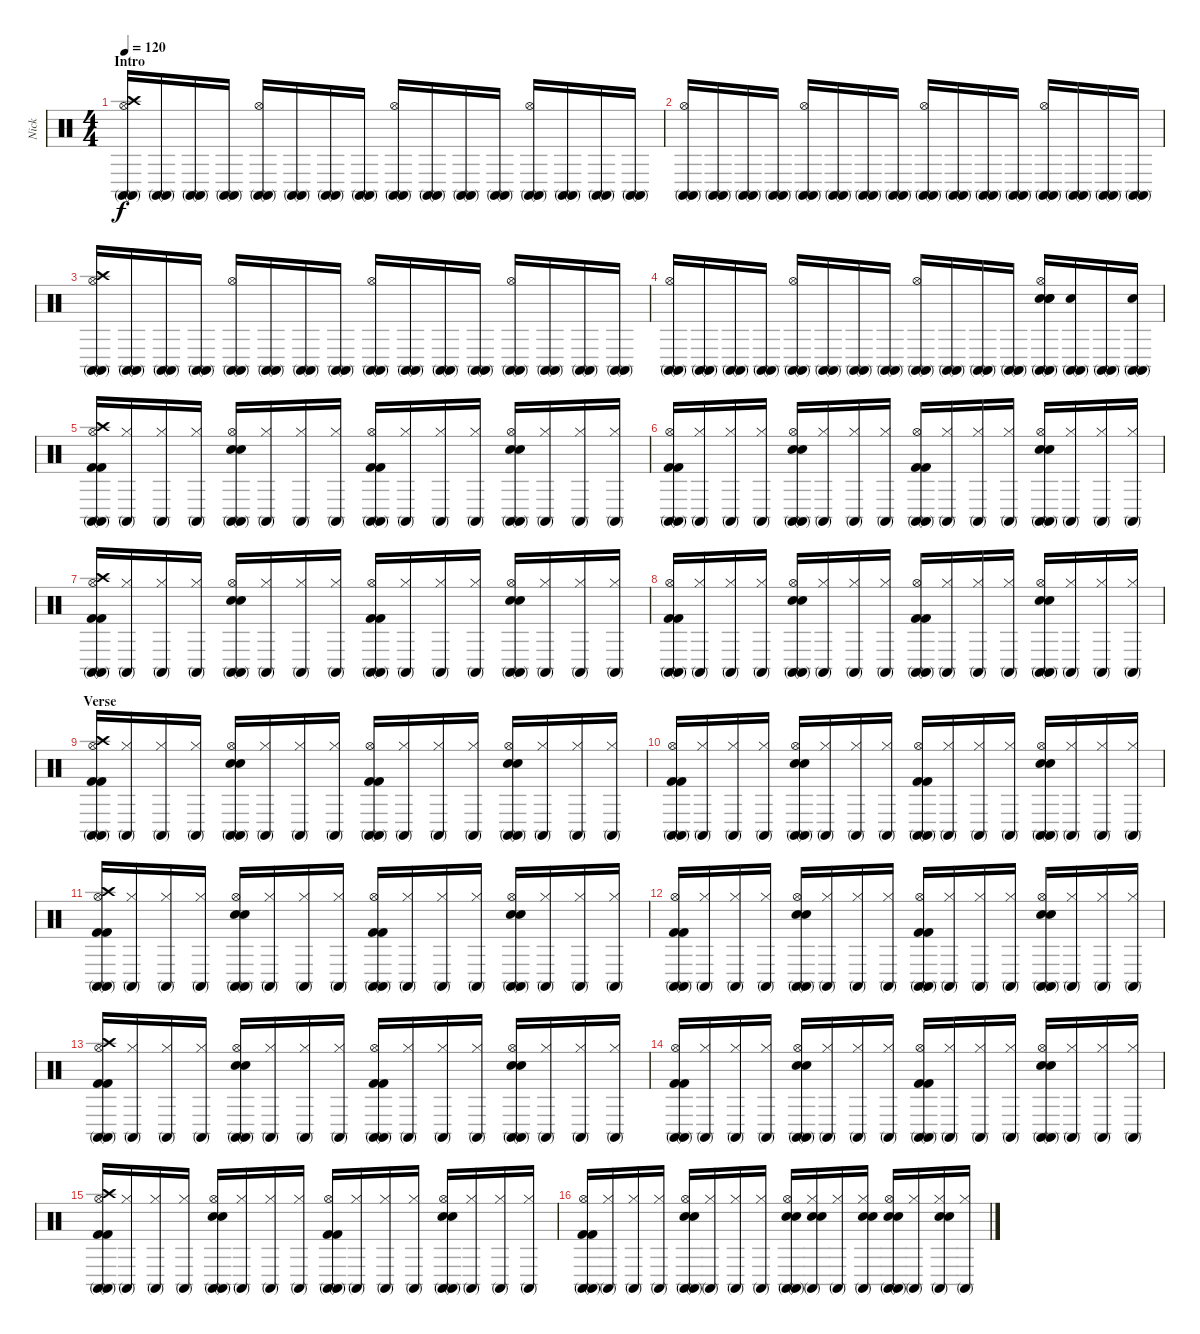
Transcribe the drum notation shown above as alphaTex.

\track ("Nick" "Nick") {instrument percussion}
\staff {score}
\articulation defaults
\ts (4 4)
\section ("" "Intro")
\tempo 120
\clef neutral
\ks c
("Conga high (mute)" "Hi-Hat (open)" "Crash high (hit)" "Conga high (mute)").16{dy f} ("Conga high (mute)" "Conga high (mute)").16 ("Conga high (mute)" "Conga high (mute)").16 ("Conga high (mute)" "Conga high (mute)").16 ("Conga high (mute)" "Hi-Hat (open)" "Conga high (mute)").16 ("Conga high (mute)" "Conga high (mute)").16 ("Conga high (mute)" "Conga high (mute)").16 ("Conga high (mute)" "Conga high (mute)").16 ("Conga high (mute)" "Hi-Hat (open)" "Conga high (mute)").16 ("Conga high (mute)" "Conga high (mute)").16 ("Conga high (mute)" "Conga high (mute)").16 ("Conga high (mute)" "Conga high (mute)").16 ("Conga high (mute)" "Hi-Hat (open)" "Conga high (mute)").16 ("Conga high (mute)" "Conga high (mute)").16 ("Conga high (mute)" "Conga high (mute)").16 ("Conga high (mute)" "Conga high (mute)").16 |
("Conga high (mute)" "Hi-Hat (open)" "Conga high (mute)").16 ("Conga high (mute)" "Conga high (mute)").16 ("Conga high (mute)" "Conga high (mute)").16 ("Conga high (mute)" "Conga high (mute)").16 ("Conga high (mute)" "Hi-Hat (open)" "Conga high (mute)").16 ("Conga high (mute)" "Conga high (mute)").16 ("Conga high (mute)" "Conga high (mute)").16 ("Conga high (mute)" "Conga high (mute)").16 ("Conga high (mute)" "Hi-Hat (open)" "Conga high (mute)").16 ("Conga high (mute)" "Conga high (mute)").16 ("Conga high (mute)" "Conga high (mute)").16 ("Conga high (mute)" "Conga high (mute)").16 ("Conga high (mute)" "Hi-Hat (open)" "Conga high (mute)").16 ("Conga high (mute)" "Conga high (mute)").16 ("Conga high (mute)" "Conga high (mute)").16 ("Conga high (mute)" "Conga high (mute)").16 |
("Conga high (mute)" "Hi-Hat (open)" "Crash high (hit)" "Conga high (mute)").16 ("Conga high (mute)" "Conga high (mute)").16 ("Conga high (mute)" "Conga high (mute)").16 ("Conga high (mute)" "Conga high (mute)").16 ("Conga high (mute)" "Hi-Hat (open)" "Conga high (mute)").16 ("Conga high (mute)" "Conga high (mute)").16 ("Conga high (mute)" "Conga high (mute)").16 ("Conga high (mute)" "Conga high (mute)").16 ("Conga high (mute)" "Hi-Hat (open)" "Conga high (mute)").16 ("Conga high (mute)" "Conga high (mute)").16 ("Conga high (mute)" "Conga high (mute)").16 ("Conga high (mute)" "Conga high (mute)").16 ("Conga high (mute)" "Hi-Hat (open)" "Conga high (mute)").16 ("Conga high (mute)" "Conga high (mute)").16 ("Conga high (mute)" "Conga high (mute)").16 ("Conga high (mute)" "Conga high (mute)").16 |
("Conga high (mute)" "Hi-Hat (open)" "Conga high (mute)").16 ("Conga high (mute)" "Conga high (mute)").16 ("Conga high (mute)" "Conga high (mute)").16 ("Conga high (mute)" "Conga high (mute)").16 ("Conga high (mute)" "Hi-Hat (open)" "Conga high (mute)").16 ("Conga high (mute)" "Conga high (mute)").16 ("Conga high (mute)" "Conga high (mute)").16 ("Conga high (mute)" "Conga high (mute)").16 ("Conga high (mute)" "Hi-Hat (open)" "Conga high (mute)").16 ("Conga high (mute)" "Conga high (mute)").16 ("Conga high (mute)" "Conga high (mute)").16 ("Conga high (mute)" "Conga high (mute)").16 ("Conga high (mute)" "Hi-Hat (open)" "Snare (hit) 2" "Snare (hit) 2" "Snare (hit) 2" "Conga high (mute)").16 ("Conga high (mute)" "Snare (hit) 2" "Conga high (mute)").16 ("Conga high (mute)" "Conga high (mute)").16 ("Conga high (mute)" "Snare (hit) 2" "Conga high (mute)").16 |
("Conga high (mute)" "Hi-Hat (open)" "Crash high (hit)" "Kick (hit) 2" "Kick (hit) 2" "Conga high (mute)").16 ("Hi-Hat (closed)" "Conga high (mute)").16 ("Hi-Hat (closed)" "Conga high (mute)").16 ("Hi-Hat (closed)" "Conga high (mute)").16 ("Conga high (mute)" "Hi-Hat (open)" "Snare (hit) 2" "Snare (hit) 2" "Conga high (mute)").16 ("Hi-Hat (closed)" "Conga high (mute)").16 ("Hi-Hat (closed)" "Conga high (mute)").16 ("Hi-Hat (closed)" "Conga high (mute)").16 ("Conga high (mute)" "Hi-Hat (open)" "Kick (hit) 2" "Kick (hit) 2" "Conga high (mute)").16 ("Hi-Hat (closed)" "Conga high (mute)").16 ("Hi-Hat (closed)" "Conga high (mute)").16 ("Hi-Hat (closed)" "Conga high (mute)").16 ("Conga high (mute)" "Hi-Hat (open)" "Snare (hit) 2" "Snare (hit) 2" "Conga high (mute)").16 ("Hi-Hat (closed)" "Conga high (mute)").16 ("Hi-Hat (closed)" "Conga high (mute)").16 ("Hi-Hat (closed)" "Conga high (mute)").16 |
("Conga high (mute)" "Hi-Hat (open)" "Kick (hit) 2" "Kick (hit) 2" "Conga high (mute)").16 ("Hi-Hat (closed)" "Conga high (mute)").16 ("Hi-Hat (closed)" "Conga high (mute)").16 ("Hi-Hat (closed)" "Conga high (mute)").16 ("Conga high (mute)" "Hi-Hat (open)" "Snare (hit) 2" "Snare (hit) 2" "Conga high (mute)").16 ("Hi-Hat (closed)" "Conga high (mute)").16 ("Hi-Hat (closed)" "Conga high (mute)").16 ("Hi-Hat (closed)" "Conga high (mute)").16 ("Conga high (mute)" "Hi-Hat (open)" "Kick (hit) 2" "Kick (hit) 2" "Conga high (mute)").16 ("Hi-Hat (closed)" "Conga high (mute)").16 ("Hi-Hat (closed)" "Conga high (mute)").16 ("Hi-Hat (closed)" "Conga high (mute)").16 ("Conga high (mute)" "Hi-Hat (open)" "Snare (hit) 2" "Snare (hit) 2" "Conga high (mute)").16 ("Hi-Hat (closed)" "Conga high (mute)").16 ("Hi-Hat (closed)" "Conga high (mute)").16 ("Hi-Hat (closed)" "Conga high (mute)").16 |
("Conga high (mute)" "Hi-Hat (open)" "Crash high (hit)" "Kick (hit) 2" "Kick (hit) 2" "Conga high (mute)").16 ("Hi-Hat (closed)" "Conga high (mute)").16 ("Hi-Hat (closed)" "Conga high (mute)").16 ("Hi-Hat (closed)" "Conga high (mute)").16 ("Conga high (mute)" "Hi-Hat (open)" "Snare (hit) 2" "Snare (hit) 2" "Conga high (mute)").16 ("Hi-Hat (closed)" "Conga high (mute)").16 ("Hi-Hat (closed)" "Conga high (mute)").16 ("Hi-Hat (closed)" "Conga high (mute)").16 ("Conga high (mute)" "Hi-Hat (open)" "Kick (hit) 2" "Kick (hit) 2" "Conga high (mute)").16 ("Hi-Hat (closed)" "Conga high (mute)").16 ("Hi-Hat (closed)" "Conga high (mute)").16 ("Hi-Hat (closed)" "Conga high (mute)").16 ("Conga high (mute)" "Hi-Hat (open)" "Snare (hit) 2" "Snare (hit) 2" "Conga high (mute)").16 ("Hi-Hat (closed)" "Conga high (mute)").16 ("Hi-Hat (closed)" "Conga high (mute)").16 ("Hi-Hat (closed)" "Conga high (mute)").16 |
("Conga high (mute)" "Hi-Hat (open)" "Kick (hit) 2" "Kick (hit) 2" "Conga high (mute)").16 ("Hi-Hat (closed)" "Conga high (mute)").16 ("Hi-Hat (closed)" "Conga high (mute)").16 ("Hi-Hat (closed)" "Conga high (mute)").16 ("Conga high (mute)" "Hi-Hat (open)" "Snare (hit) 2" "Snare (hit) 2" "Conga high (mute)").16 ("Hi-Hat (closed)" "Conga high (mute)").16 ("Hi-Hat (closed)" "Conga high (mute)").16 ("Hi-Hat (closed)" "Conga high (mute)").16 ("Conga high (mute)" "Hi-Hat (open)" "Kick (hit) 2" "Kick (hit) 2" "Conga high (mute)").16 ("Hi-Hat (closed)" "Conga high (mute)").16 ("Hi-Hat (closed)" "Conga high (mute)").16 ("Hi-Hat (closed)" "Conga high (mute)").16 ("Conga high (mute)" "Hi-Hat (open)" "Snare (hit) 2" "Snare (hit) 2" "Conga high (mute)").16 ("Hi-Hat (closed)" "Conga high (mute)").16 ("Hi-Hat (closed)" "Conga high (mute)").16 ("Hi-Hat (closed)" "Conga high (mute)").16 |
\section ("" "Verse")
("Conga high (mute)" "Hi-Hat (open)" "Crash high (hit)" "Kick (hit) 2" "Kick (hit) 2" "Conga high (mute)").16 ("Hi-Hat (closed)" "Conga high (mute)").16 ("Hi-Hat (closed)" "Conga high (mute)").16 ("Hi-Hat (closed)" "Conga high (mute)").16 ("Conga high (mute)" "Hi-Hat (open)" "Snare (hit) 2" "Snare (hit) 2" "Conga high (mute)").16 ("Hi-Hat (closed)" "Conga high (mute)").16 ("Hi-Hat (closed)" "Conga high (mute)").16 ("Hi-Hat (closed)" "Conga high (mute)").16 ("Conga high (mute)" "Hi-Hat (open)" "Kick (hit) 2" "Kick (hit) 2" "Conga high (mute)").16 ("Hi-Hat (closed)" "Conga high (mute)").16 ("Hi-Hat (closed)" "Conga high (mute)").16 ("Hi-Hat (closed)" "Conga high (mute)").16 ("Conga high (mute)" "Hi-Hat (open)" "Snare (hit) 2" "Snare (hit) 2" "Conga high (mute)").16 ("Hi-Hat (closed)" "Conga high (mute)").16 ("Hi-Hat (closed)" "Conga high (mute)").16 ("Hi-Hat (closed)" "Conga high (mute)").16 |
("Conga high (mute)" "Hi-Hat (open)" "Kick (hit) 2" "Kick (hit) 2" "Conga high (mute)").16 ("Hi-Hat (closed)" "Conga high (mute)").16 ("Hi-Hat (closed)" "Conga high (mute)").16 ("Hi-Hat (closed)" "Conga high (mute)").16 ("Conga high (mute)" "Hi-Hat (open)" "Snare (hit) 2" "Snare (hit) 2" "Conga high (mute)").16 ("Hi-Hat (closed)" "Conga high (mute)").16 ("Hi-Hat (closed)" "Conga high (mute)").16 ("Hi-Hat (closed)" "Conga high (mute)").16 ("Conga high (mute)" "Hi-Hat (open)" "Kick (hit) 2" "Kick (hit) 2" "Conga high (mute)").16 ("Hi-Hat (closed)" "Conga high (mute)").16 ("Hi-Hat (closed)" "Conga high (mute)").16 ("Hi-Hat (closed)" "Conga high (mute)").16 ("Conga high (mute)" "Hi-Hat (open)" "Snare (hit) 2" "Snare (hit) 2" "Conga high (mute)").16 ("Hi-Hat (closed)" "Conga high (mute)").16 ("Hi-Hat (closed)" "Conga high (mute)").16 ("Hi-Hat (closed)" "Conga high (mute)").16 |
("Conga high (mute)" "Hi-Hat (open)" "Crash high (hit)" "Kick (hit) 2" "Kick (hit) 2" "Conga high (mute)").16 ("Hi-Hat (closed)" "Conga high (mute)").16 ("Hi-Hat (closed)" "Conga high (mute)").16 ("Hi-Hat (closed)" "Conga high (mute)").16 ("Conga high (mute)" "Hi-Hat (open)" "Snare (hit) 2" "Snare (hit) 2" "Conga high (mute)").16 ("Hi-Hat (closed)" "Conga high (mute)").16 ("Hi-Hat (closed)" "Conga high (mute)").16 ("Hi-Hat (closed)" "Conga high (mute)").16 ("Conga high (mute)" "Hi-Hat (open)" "Kick (hit) 2" "Kick (hit) 2" "Conga high (mute)").16 ("Hi-Hat (closed)" "Conga high (mute)").16 ("Hi-Hat (closed)" "Conga high (mute)").16 ("Hi-Hat (closed)" "Conga high (mute)").16 ("Conga high (mute)" "Hi-Hat (open)" "Snare (hit) 2" "Snare (hit) 2" "Conga high (mute)").16 ("Hi-Hat (closed)" "Conga high (mute)").16 ("Hi-Hat (closed)" "Conga high (mute)").16 ("Hi-Hat (closed)" "Conga high (mute)").16 |
("Conga high (mute)" "Hi-Hat (open)" "Kick (hit) 2" "Kick (hit) 2" "Conga high (mute)").16 ("Hi-Hat (closed)" "Conga high (mute)").16 ("Hi-Hat (closed)" "Conga high (mute)").16 ("Hi-Hat (closed)" "Conga high (mute)").16 ("Conga high (mute)" "Hi-Hat (open)" "Snare (hit) 2" "Snare (hit) 2" "Conga high (mute)").16 ("Hi-Hat (closed)" "Conga high (mute)").16 ("Hi-Hat (closed)" "Conga high (mute)").16 ("Hi-Hat (closed)" "Conga high (mute)").16 ("Conga high (mute)" "Hi-Hat (open)" "Kick (hit) 2" "Kick (hit) 2" "Conga high (mute)").16 ("Hi-Hat (closed)" "Conga high (mute)").16 ("Hi-Hat (closed)" "Conga high (mute)").16 ("Hi-Hat (closed)" "Conga high (mute)").16 ("Conga high (mute)" "Hi-Hat (open)" "Snare (hit) 2" "Snare (hit) 2" "Conga high (mute)").16 ("Hi-Hat (closed)" "Conga high (mute)").16 ("Hi-Hat (closed)" "Conga high (mute)").16 ("Hi-Hat (closed)" "Conga high (mute)").16 |
("Conga high (mute)" "Hi-Hat (open)" "Crash high (hit)" "Kick (hit) 2" "Kick (hit) 2" "Conga high (mute)").16 ("Hi-Hat (closed)" "Conga high (mute)").16 ("Hi-Hat (closed)" "Conga high (mute)").16 ("Hi-Hat (closed)" "Conga high (mute)").16 ("Conga high (mute)" "Hi-Hat (open)" "Snare (hit) 2" "Snare (hit) 2" "Conga high (mute)").16 ("Hi-Hat (closed)" "Conga high (mute)").16 ("Hi-Hat (closed)" "Conga high (mute)").16 ("Hi-Hat (closed)" "Conga high (mute)").16 ("Conga high (mute)" "Hi-Hat (open)" "Kick (hit) 2" "Kick (hit) 2" "Conga high (mute)").16 ("Hi-Hat (closed)" "Conga high (mute)").16 ("Hi-Hat (closed)" "Conga high (mute)").16 ("Hi-Hat (closed)" "Conga high (mute)").16 ("Conga high (mute)" "Hi-Hat (open)" "Snare (hit) 2" "Snare (hit) 2" "Conga high (mute)").16 ("Hi-Hat (closed)" "Conga high (mute)").16 ("Hi-Hat (closed)" "Conga high (mute)").16 ("Hi-Hat (closed)" "Conga high (mute)").16 |
("Conga high (mute)" "Hi-Hat (open)" "Kick (hit) 2" "Kick (hit) 2" "Conga high (mute)").16 ("Hi-Hat (closed)" "Conga high (mute)").16 ("Hi-Hat (closed)" "Conga high (mute)").16 ("Hi-Hat (closed)" "Conga high (mute)").16 ("Conga high (mute)" "Hi-Hat (open)" "Snare (hit) 2" "Snare (hit) 2" "Conga high (mute)").16 ("Hi-Hat (closed)" "Conga high (mute)").16 ("Hi-Hat (closed)" "Conga high (mute)").16 ("Hi-Hat (closed)" "Conga high (mute)").16 ("Conga high (mute)" "Hi-Hat (open)" "Kick (hit) 2" "Kick (hit) 2" "Conga high (mute)").16 ("Hi-Hat (closed)" "Conga high (mute)").16 ("Hi-Hat (closed)" "Conga high (mute)").16 ("Hi-Hat (closed)" "Conga high (mute)").16 ("Conga high (mute)" "Hi-Hat (open)" "Snare (hit) 2" "Snare (hit) 2" "Conga high (mute)").16 ("Hi-Hat (closed)" "Conga high (mute)").16 ("Hi-Hat (closed)" "Conga high (mute)").16 ("Hi-Hat (closed)" "Conga high (mute)").16 |
("Conga high (mute)" "Hi-Hat (open)" "Crash high (hit)" "Kick (hit) 2" "Kick (hit) 2" "Conga high (mute)").16 ("Hi-Hat (closed)" "Conga high (mute)").16 ("Hi-Hat (closed)" "Conga high (mute)").16 ("Hi-Hat (closed)" "Conga high (mute)").16 ("Conga high (mute)" "Hi-Hat (open)" "Snare (hit) 2" "Snare (hit) 2" "Conga high (mute)").16 ("Hi-Hat (closed)" "Conga high (mute)").16 ("Hi-Hat (closed)" "Conga high (mute)").16 ("Hi-Hat (closed)" "Conga high (mute)").16 ("Conga high (mute)" "Hi-Hat (open)" "Kick (hit) 2" "Kick (hit) 2" "Conga high (mute)").16 ("Hi-Hat (closed)" "Conga high (mute)").16 ("Hi-Hat (closed)" "Conga high (mute)").16 ("Hi-Hat (closed)" "Conga high (mute)").16 ("Conga high (mute)" "Hi-Hat (open)" "Snare (hit) 2" "Snare (hit) 2" "Conga high (mute)").16 ("Hi-Hat (closed)" "Conga high (mute)").16 ("Hi-Hat (closed)" "Conga high (mute)").16 ("Hi-Hat (closed)" "Conga high (mute)").16 |
("Conga high (mute)" "Hi-Hat (open)" "Kick (hit) 2" "Kick (hit) 2" "Conga high (mute)").16 ("Hi-Hat (closed)" "Conga high (mute)").16 ("Hi-Hat (closed)" "Conga high (mute)").16 ("Hi-Hat (closed)" "Conga high (mute)").16 ("Conga high (mute)" "Hi-Hat (open)" "Snare (hit) 2" "Snare (hit) 2" "Conga high (mute)").16 ("Hi-Hat (closed)" "Conga high (mute)").16 ("Hi-Hat (closed)" "Conga high (mute)").16 ("Hi-Hat (closed)" "Conga high (mute)").16 ("Conga high (mute)" "Hi-Hat (open)" "Snare (hit) 2" "Snare (hit) 2" "Conga high (mute)").16 ("Hi-Hat (closed)" "Snare (hit) 2" "Snare (hit) 2" "Conga high (mute)").16 ("Hi-Hat (closed)" "Conga high (mute)").16 ("Hi-Hat (closed)" "Snare (hit) 2" "Snare (hit) 2" "Conga high (mute)").16 ("Conga high (mute)" "Hi-Hat (open)" "Snare (hit) 2" "Snare (hit) 2" "Conga high (mute)").16 ("Hi-Hat (closed)" "Conga high (mute)").16 ("Hi-Hat (closed)" "Snare (hit) 2" "Snare (hit) 2" "Conga high (mute)").16 ("Hi-Hat (closed)" "Conga high (mute)").16
